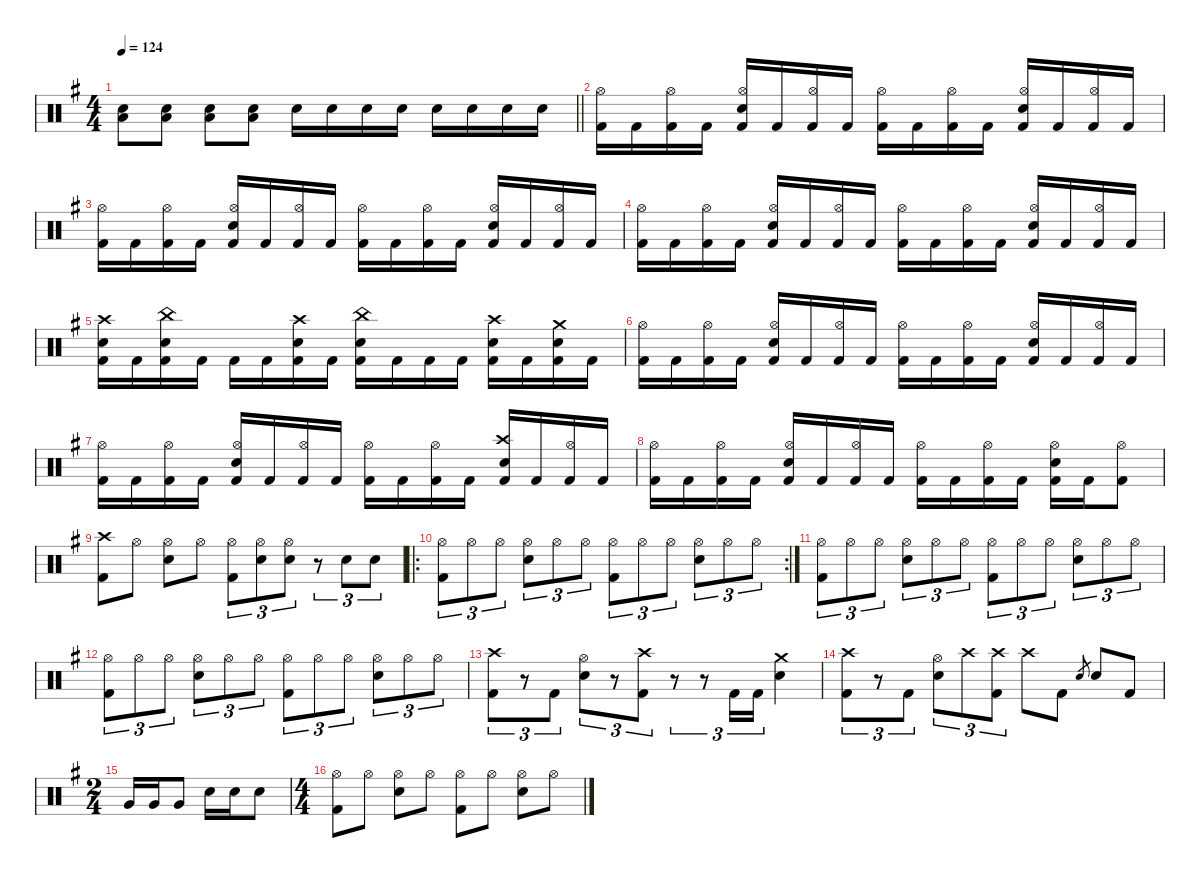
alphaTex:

\defaultSystemsLayout 4
\hideDynamics
\bracketExtendMode nobrackets
\singleTrackTrackNamePolicy hidden
\multiTrackTrackNamePolicy hidden
\otherSystemsTrackNameOrientation horizontal
\track ("Drums" "drm.") {defaultSystemsLayout 4 instrument percussion}
\staff {score}
\articulation defaults
\ts (4 4)
\tempo 124
\clef neutral
\barLineRight lightlight
\ks g
("Low Tom (hit)"{acc forcenatural} "Snare (hit) 2"{acc forcenatural}).8{dy f beam Down} ("Low Tom (hit)"{acc forcenatural} "Snare (hit) 2"{acc forcenatural}).8{beam Down} ("Low Tom (hit)"{acc forcenatural} "Snare (hit) 2"{acc forcenatural}).8{beam Down} ("Low Tom (hit)"{acc forcenatural} "Snare (hit) 2"{acc forcenatural}).8{beam Down} "Snare (hit) 2"{acc forcenatural}.16{dy ff beam Down} "Snare (hit) 2"{acc forcenatural}.16{beam Down} "Snare (hit) 2"{acc forcenatural}.16{beam Down} "Snare (hit) 2"{acc forcenatural}.16{beam Down} "Snare (hit) 2"{acc forcenatural}.16{beam Down} "Snare (hit) 2"{acc forcenatural}.16{beam Down} "Snare (hit) 2"{acc forcenatural}.16{beam Down} "Snare (hit) 2"{acc forcenatural}.16{beam Down} |
("Hi-Hat (open)"{acc forcenatural} "Kick (hit) 2"{acc forcenatural}).16{dy mf beam Down} "Kick (hit) 2"{acc forcenatural}.16{dy ff beam Down} ("Hi-Hat (open)"{acc forcenatural} "Kick (hit) 2"{acc forcenatural}).16{dy mf beam Down} "Kick (hit) 2"{acc forcenatural}.16{dy ff beam Down} ("Hi-Hat (open)"{acc forcenatural} "Snare (hit) 2"{acc forcenatural} "Kick (hit) 2"{acc forcenatural}).16{dy mf beam Up} "Kick (hit) 2"{acc forcenatural}.16{dy ff beam Up} ("Hi-Hat (open)"{acc forcenatural} "Kick (hit) 2"{acc forcenatural}).16{dy mf beam Up} "Kick (hit) 2"{acc forcenatural}.16{dy ff beam Up} ("Hi-Hat (open)"{acc forcenatural} "Kick (hit) 2"{acc forcenatural}).16{dy mf beam Down} "Kick (hit) 2"{acc forcenatural}.16{dy ff beam Down} ("Hi-Hat (open)"{acc forcenatural} "Kick (hit) 2"{acc forcenatural}).16{dy mf beam Down} "Kick (hit) 2"{acc forcenatural}.16{dy ff beam Down} ("Hi-Hat (open)"{acc forcenatural} "Snare (hit) 2"{acc forcenatural} "Kick (hit) 2"{acc forcenatural}).16{dy mf beam Up} "Kick (hit) 2"{acc forcenatural}.16{dy ff beam Up} ("Hi-Hat (open)"{acc forcenatural} "Kick (hit) 2"{acc forcenatural}).16{dy mp beam Up} "Kick (hit) 2"{acc forcenatural}.16{dy ff beam Up} |
("Hi-Hat (open)"{acc forcenatural} "Kick (hit) 2"{acc forcenatural}).16{dy mf beam Down} "Kick (hit) 2"{acc forcenatural}.16{dy ff beam Down} ("Hi-Hat (open)"{acc forcenatural} "Kick (hit) 2"{acc forcenatural}).16{dy mf beam Down} "Kick (hit) 2"{acc forcenatural}.16{dy ff beam Down} ("Hi-Hat (open)"{acc forcenatural} "Snare (hit) 2"{acc forcenatural} "Kick (hit) 2"{acc forcenatural}).16{dy mf beam Up} "Kick (hit) 2"{acc forcenatural}.16{dy ff beam Up} ("Hi-Hat (open)"{acc forcenatural} "Kick (hit) 2"{acc forcenatural}).16{dy mf beam Up} "Kick (hit) 2"{acc forcenatural}.16{dy ff beam Up} ("Hi-Hat (open)"{acc forcenatural} "Kick (hit) 2"{acc forcenatural}).16{dy mf beam Down} "Kick (hit) 2"{acc forcenatural}.16{dy ff beam Down} ("Hi-Hat (open)"{acc forcenatural} "Kick (hit) 2"{acc forcenatural}).16{dy mf beam Down} "Kick (hit) 2"{acc forcenatural}.16{dy ff beam Down} ("Hi-Hat (open)"{acc forcenatural} "Snare (hit) 2"{acc forcenatural} "Kick (hit) 2"{acc forcenatural}).16{dy mf beam Up} "Kick (hit) 2"{acc forcenatural}.16{dy ff beam Up} ("Hi-Hat (open)"{acc forcenatural} "Kick (hit) 2"{acc forcenatural}).16{dy mf beam Up} "Kick (hit) 2"{acc forcenatural}.16{dy ff beam Up} |
("Hi-Hat (open)"{acc forcenatural} "Kick (hit) 2"{acc forcenatural}).16{dy mf beam Down} "Kick (hit) 2"{acc forcenatural}.16{dy ff beam Down} ("Hi-Hat (open)"{acc forcenatural} "Kick (hit) 2"{acc forcenatural}).16{dy mf beam Down} "Kick (hit) 2"{acc forcenatural}.16{dy ff beam Down} ("Hi-Hat (open)"{acc forcenatural} "Snare (hit) 2"{acc forcenatural} "Kick (hit) 2"{acc forcenatural}).16{dy mf beam Up} "Kick (hit) 2"{acc forcenatural}.16{dy ff beam Up} ("Hi-Hat (open)"{acc forcenatural} "Kick (hit) 2"{acc forcenatural}).16{dy mf beam Up} "Kick (hit) 2"{acc forcenatural}.16{dy ff beam Up} ("Hi-Hat (open)"{acc forcenatural} "Kick (hit) 2"{acc forcenatural}).16{dy mf beam Down} "Kick (hit) 2"{acc forcenatural}.16{dy ff beam Down} ("Hi-Hat (open)"{acc forcenatural} "Kick (hit) 2"{acc forcenatural}).16{dy mf beam Down} "Kick (hit) 2"{acc forcenatural}.16{dy ff beam Down} ("Hi-Hat (open)"{acc forcenatural} "Snare (hit) 2"{acc forcenatural} "Kick (hit) 2"{acc forcenatural}).16{dy mf beam Up} "Kick (hit) 2"{acc forcenatural}.16{dy ff beam Up} ("Hi-Hat (open)"{acc forcenatural} "Kick (hit) 2"{acc forcenatural}).16{dy mf beam Up} "Kick (hit) 2"{acc forcenatural}.16{dy ff beam Up} |
("Crash high (hit)"{acc forcenatural} "Snare (hit) 2"{acc forcenatural} "Kick (hit) 2"{acc forcenatural}).16{dy mf beam Down} "Kick (hit) 2"{acc forcenatural}.16{dy ff beam Down} ("China (hit)"{acc forcenatural} "Snare (hit) 2"{acc forcenatural} "Kick (hit) 2"{acc forcenatural}).16{dy mf beam Down} "Kick (hit) 2"{acc forcenatural}.16{dy ff beam Down} "Kick (hit) 2"{acc forcenatural}.16{beam Down} "Kick (hit) 2"{acc forcenatural}.16{beam Down} ("Crash high (hit)"{acc forcenatural} "Snare (hit) 2"{acc forcenatural} "Kick (hit) 2"{acc forcenatural}).16{dy mf beam Down} "Kick (hit) 2"{acc forcenatural}.16{dy ff beam Down} ("China (hit)"{acc forcenatural} "Snare (hit) 2"{acc forcenatural} "Kick (hit) 2"{acc forcenatural}).16{dy mf beam Down} "Kick (hit) 2"{acc forcenatural}.16{dy ff beam Down} "Kick (hit) 2"{acc forcenatural}.16{beam Down} "Kick (hit) 2"{acc forcenatural}.16{beam Down} ("Crash high (hit)"{acc forcenatural} "Snare (hit) 2"{acc forcenatural} "Kick (hit) 2"{acc forcenatural}).16{dy mf beam Down} "Kick (hit) 2"{acc forcenatural}.16{dy ff beam Down} ("Crash medium (hit)"{acc forcenatural} "Snare (hit) 2"{acc forcenatural} "Kick (hit) 2"{acc forcenatural}).16{dy mf beam Down} "Kick (hit) 2"{acc forcenatural}.16{dy ff beam Down} |
("Hi-Hat (open)"{acc forcenatural} "Kick (hit) 2"{acc forcenatural}).16{dy mf beam Down} "Kick (hit) 2"{acc forcenatural}.16{dy ff beam Down} ("Hi-Hat (open)"{acc forcenatural} "Kick (hit) 2"{acc forcenatural}).16{dy mf beam Down} "Kick (hit) 2"{acc forcenatural}.16{dy ff beam Down} ("Hi-Hat (open)"{acc forcenatural} "Snare (hit) 2"{acc forcenatural} "Kick (hit) 2"{acc forcenatural}).16{dy mf beam Up} "Kick (hit) 2"{acc forcenatural}.16{dy ff beam Up} ("Hi-Hat (open)"{acc forcenatural} "Kick (hit) 2"{acc forcenatural}).16{dy mf beam Up} "Kick (hit) 2"{acc forcenatural}.16{dy ff beam Up} ("Hi-Hat (open)"{acc forcenatural} "Kick (hit) 2"{acc forcenatural}).16{dy mf beam Down} "Kick (hit) 2"{acc forcenatural}.16{dy ff beam Down} ("Hi-Hat (open)"{acc forcenatural} "Kick (hit) 2"{acc forcenatural}).16{dy mf beam Down} "Kick (hit) 2"{acc forcenatural}.16{dy ff beam Down} ("Hi-Hat (open)"{acc forcenatural} "Snare (hit) 2"{acc forcenatural} "Kick (hit) 2"{acc forcenatural}).16{dy mf beam Up} "Kick (hit) 2"{acc forcenatural}.16{dy ff beam Up} ("Hi-Hat (open)"{acc forcenatural} "Kick (hit) 2"{acc forcenatural}).16{dy mf beam Up} "Kick (hit) 2"{acc forcenatural}.16{dy ff beam Up} |
("Hi-Hat (open)"{acc forcenatural} "Kick (hit) 2"{acc forcenatural}).16{dy mf beam Down} "Kick (hit) 2"{acc forcenatural}.16{dy ff beam Down} ("Hi-Hat (open)"{acc forcenatural} "Kick (hit) 2"{acc forcenatural}).16{dy mf beam Down} "Kick (hit) 2"{acc forcenatural}.16{dy ff beam Down} ("Hi-Hat (open)"{acc forcenatural} "Snare (hit) 2"{acc forcenatural} "Kick (hit) 2"{acc forcenatural}).16{dy mf beam Up} "Kick (hit) 2"{acc forcenatural}.16{dy ff beam Up} ("Hi-Hat (open)"{acc forcenatural} "Kick (hit) 2"{acc forcenatural}).16{dy mf beam Up} "Kick (hit) 2"{acc forcenatural}.16{dy ff beam Up} ("Hi-Hat (open)"{acc forcenatural} "Kick (hit) 2"{acc forcenatural}).16{dy mp beam Down} "Kick (hit) 2"{acc forcenatural}.16{dy ff beam Down} ("Hi-Hat (open)"{acc forcenatural} "Kick (hit) 2"{acc forcenatural}).16{dy mf beam Down} "Kick (hit) 2"{acc forcenatural}.16{dy ff beam Down} ("Crash high (hit)"{acc forcenatural} "Snare (hit) 2"{acc forcenatural} "Kick (hit) 2"{acc forcenatural}).16{dy mf beam Up} "Kick (hit) 2"{acc forcenatural}.16{dy ff beam Up} ("Hi-Hat (open)"{acc forcenatural} "Kick (hit) 2"{acc forcenatural}).16{dy mf beam Up} "Kick (hit) 2"{acc forcenatural}.16{dy ff beam Up} |
("Hi-Hat (open)"{acc forcenatural} "Kick (hit) 2"{acc forcenatural}).16{dy mf beam Down} "Kick (hit) 2"{acc forcenatural}.16{dy ff beam Down} ("Hi-Hat (open)"{acc forcenatural} "Kick (hit) 2"{acc forcenatural}).16{dy mf beam Down} "Kick (hit) 2"{acc forcenatural}.16{dy ff beam Down} ("Hi-Hat (open)"{acc forcenatural} "Snare (hit) 2"{acc forcenatural} "Kick (hit) 2"{acc forcenatural}).16{dy mf beam Up} "Kick (hit) 2"{acc forcenatural}.16{dy ff beam Up} ("Hi-Hat (open)"{acc forcenatural} "Kick (hit) 2"{acc forcenatural}).16{dy mf beam Up} "Kick (hit) 2"{acc forcenatural}.16{dy ff beam Up} ("Hi-Hat (open)"{acc forcenatural} "Kick (hit) 2"{acc forcenatural}).16{dy mf beam Down} "Kick (hit) 2"{acc forcenatural}.16{dy ff beam Down} ("Hi-Hat (open)"{acc forcenatural} "Kick (hit) 2"{acc forcenatural}).16{dy mf beam Down} "Kick (hit) 2"{acc forcenatural}.16{dy ff beam Down} ("Hi-Hat (open)"{acc forcenatural} "Snare (hit) 2"{acc forcenatural} "Kick (hit) 2"{acc forcenatural}).16{dy mf beam Down} "Kick (hit) 2"{acc forcenatural}.16{dy ff beam Down} ("Hi-Hat (open)"{acc forcenatural} "Kick (hit) 2"{acc forcenatural}).8{dy mf beam Down} |
("Crash high (hit)"{acc forcenatural} "Kick (hit) 2"{acc forcenatural}).8{beam Down} "Hi-Hat (open)"{acc forcenatural}.8{beam Down} ("Hi-Hat (open)"{acc forcenatural} "Snare (hit) 2"{acc forcenatural}).8{beam Down} "Hi-Hat (open)"{acc forcenatural}.8{beam Down} ("Hi-Hat (open)"{acc forcenatural} "Kick (hit) 2"{acc forcenatural}).8{tu (3 2) beam Down} ("Hi-Hat (open)"{acc forcenatural} "Snare (hit) 2"{acc forcenatural}).8{tu (3 2) beam Down} ("Hi-Hat (open)"{acc forcenatural} "Snare (hit) 2"{acc forcenatural}).8{tu (3 2) beam Down} r.8{tu (3 2) beam Down} "Snare (hit) 2"{acc forcenatural}.8{tu (3 2) dy ff beam Down} "Snare (hit) 2"{acc forcenatural}.8{tu (3 2) beam Down} |
\ro
\rc 2
("Hi-Hat (open)"{acc forcenatural} "Kick (hit) 2"{acc forcenatural}).8{tu (3 2) dy mf beam Down} "Hi-Hat (open)"{acc forcenatural}.8{tu (3 2) beam Down} "Hi-Hat (open)"{acc forcenatural}.8{tu (3 2) beam Down} ("Hi-Hat (open)"{acc forcenatural} "Snare (hit) 2"{acc forcenatural}).8{tu (3 2) beam Down} "Hi-Hat (open)"{acc forcenatural}.8{tu (3 2) beam Down} "Hi-Hat (open)"{acc forcenatural}.8{tu (3 2) beam Down} ("Hi-Hat (open)"{acc forcenatural} "Kick (hit) 2"{acc forcenatural}).8{tu (3 2) beam Down} "Hi-Hat (open)"{acc forcenatural}.8{tu (3 2) beam Down} "Hi-Hat (open)"{acc forcenatural}.8{tu (3 2) beam Down} ("Hi-Hat (open)"{acc forcenatural} "Snare (hit) 2"{acc forcenatural}).8{tu (3 2) beam Down} "Hi-Hat (open)"{acc forcenatural}.8{tu (3 2) beam Down} "Hi-Hat (open)"{acc forcenatural}.8{tu (3 2) beam Down} |
("Hi-Hat (open)"{acc forcenatural} "Kick (hit) 2"{acc forcenatural}).8{tu (3 2) beam Down} "Hi-Hat (open)"{acc forcenatural}.8{tu (3 2) beam Down} "Hi-Hat (open)"{acc forcenatural}.8{tu (3 2) beam Down} ("Hi-Hat (open)"{acc forcenatural} "Snare (hit) 2"{acc forcenatural}).8{tu (3 2) beam Down} "Hi-Hat (open)"{acc forcenatural}.8{tu (3 2) beam Down} "Hi-Hat (open)"{acc forcenatural}.8{tu (3 2) beam Down} ("Hi-Hat (open)"{acc forcenatural} "Kick (hit) 2"{acc forcenatural}).8{tu (3 2) beam Down} "Hi-Hat (open)"{acc forcenatural}.8{tu (3 2) beam Down} "Hi-Hat (open)"{acc forcenatural}.8{tu (3 2) beam Down} ("Hi-Hat (open)"{acc forcenatural} "Snare (hit) 2"{acc forcenatural}).8{tu (3 2) beam Down} "Hi-Hat (open)"{acc forcenatural}.8{tu (3 2) beam Down} "Hi-Hat (open)"{acc forcenatural}.8{tu (3 2) beam Down} |
("Hi-Hat (open)"{acc forcenatural} "Kick (hit) 2"{acc forcenatural}).8{tu (3 2) beam Down} "Hi-Hat (open)"{acc forcenatural}.8{tu (3 2) beam Down} "Hi-Hat (open)"{acc forcenatural}.8{tu (3 2) beam Down} ("Hi-Hat (open)"{acc forcenatural} "Snare (hit) 2"{acc forcenatural}).8{tu (3 2) beam Down} "Hi-Hat (open)"{acc forcenatural}.8{tu (3 2) beam Down} "Hi-Hat (open)"{acc forcenatural}.8{tu (3 2) beam Down} ("Hi-Hat (open)"{acc forcenatural} "Kick (hit) 2"{acc forcenatural}).8{tu (3 2) beam Down} "Hi-Hat (open)"{acc forcenatural}.8{tu (3 2) beam Down} "Hi-Hat (open)"{acc forcenatural}.8{tu (3 2) beam Down} ("Hi-Hat (open)"{acc forcenatural} "Snare (hit) 2"{acc forcenatural}).8{tu (3 2) beam Down} "Hi-Hat (open)"{acc forcenatural}.8{tu (3 2) beam Down} "Hi-Hat (open)"{acc forcenatural}.8{tu (3 2) beam Down} |
("Crash high (hit)"{acc forcenatural} "Kick (hit) 2"{acc forcenatural}).8{tu (3 2) beam Down} r.8{tu (3 2) beam Down} "Kick (hit) 2"{acc forcenatural}.8{tu (3 2) dy ff beam Down} ("Hi-Hat (open)"{acc forcenatural} "Snare (hit) 2"{acc forcenatural}).8{tu (3 2) dy mf beam Down} r.8{tu (3 2) beam Down} ("Crash high (hit)"{acc forcenatural} "Kick (hit) 2"{acc forcenatural}).8{tu (3 2) dy mp beam Down} r.8{tu (3 2) beam Down} r.8{tu (3 2) beam Down} "Kick (hit) 2"{acc forcenatural}.16{tu (3 2) dy ff beam Up} "Kick (hit) 2"{acc forcenatural}.16{tu (3 2) beam Up} ("Crash medium (hit)"{acc forcenatural} "Snare (hit) 2"{acc forcenatural}).4{dy mf beam Down} |
("Crash high (hit)"{acc forcenatural} "Kick (hit) 2"{acc forcenatural}).8{tu (3 2) beam Down} r.8{tu (3 2) beam Down} "Kick (hit) 2"{acc forcenatural}.8{tu (3 2) dy ff beam Down} ("Hi-Hat (open)"{acc forcenatural} "Snare (hit) 2"{acc forcenatural}).8{tu (3 2) dy mf beam Down} "Crash high (hit)"{acc forcenatural}.8{tu (3 2) dy ppp beam Down} ("Crash high (hit)"{acc forcenatural} "Kick (hit) 2"{acc forcenatural}).8{tu (3 2) dy mf beam Down} "Crash high (hit)"{acc forcenatural}.8{dy ppp beam Down} "Kick (hit) 2"{acc forcenatural}.8{dy ff beam Down} "Electric Snare (hit)"{acc forcenatural}.8{gr dy mp beam Up} "Snare (hit) 2"{acc forcenatural}.8{dy ff beam Up} "Kick (hit) 2"{acc forcenatural}.8{beam Up} |
\ts (2 4)
\beaming (8 2 2)
"Very Low Tom (hit)"{acc forcenatural}.16{dy f beam Up} "Very Low Tom (hit)"{acc forcenatural}.16{beam Up} "Very Low Tom (hit)"{acc forcenatural}.8{beam Up} "Snare (hit) 2"{acc forcenatural}.16{dy ff beam Down} "Snare (hit) 2"{acc forcenatural}.16{beam Down} "Snare (hit) 2"{acc forcenatural}.8{beam Down} |
\ts (4 4)
\beaming (8 2 2 2 2)
("Hi-Hat (open)"{acc forcenatural} "Kick (hit) 2"{acc forcenatural}).8{dy mf beam Down} "Hi-Hat (open)"{acc forcenatural}.8{beam Down} ("Hi-Hat (open)"{acc forcenatural} "Snare (hit) 2"{acc forcenatural}).8{beam Down} "Hi-Hat (open)"{acc forcenatural}.8{beam Down} ("Hi-Hat (open)"{acc forcenatural} "Kick (hit) 2"{acc forcenatural}).8{beam Down} "Hi-Hat (open)"{acc forcenatural}.8{beam Down} ("Hi-Hat (open)"{acc forcenatural} "Snare (hit) 2"{acc forcenatural}).8{beam Down} "Hi-Hat (open)"{acc forcenatural}.8{beam Down}
